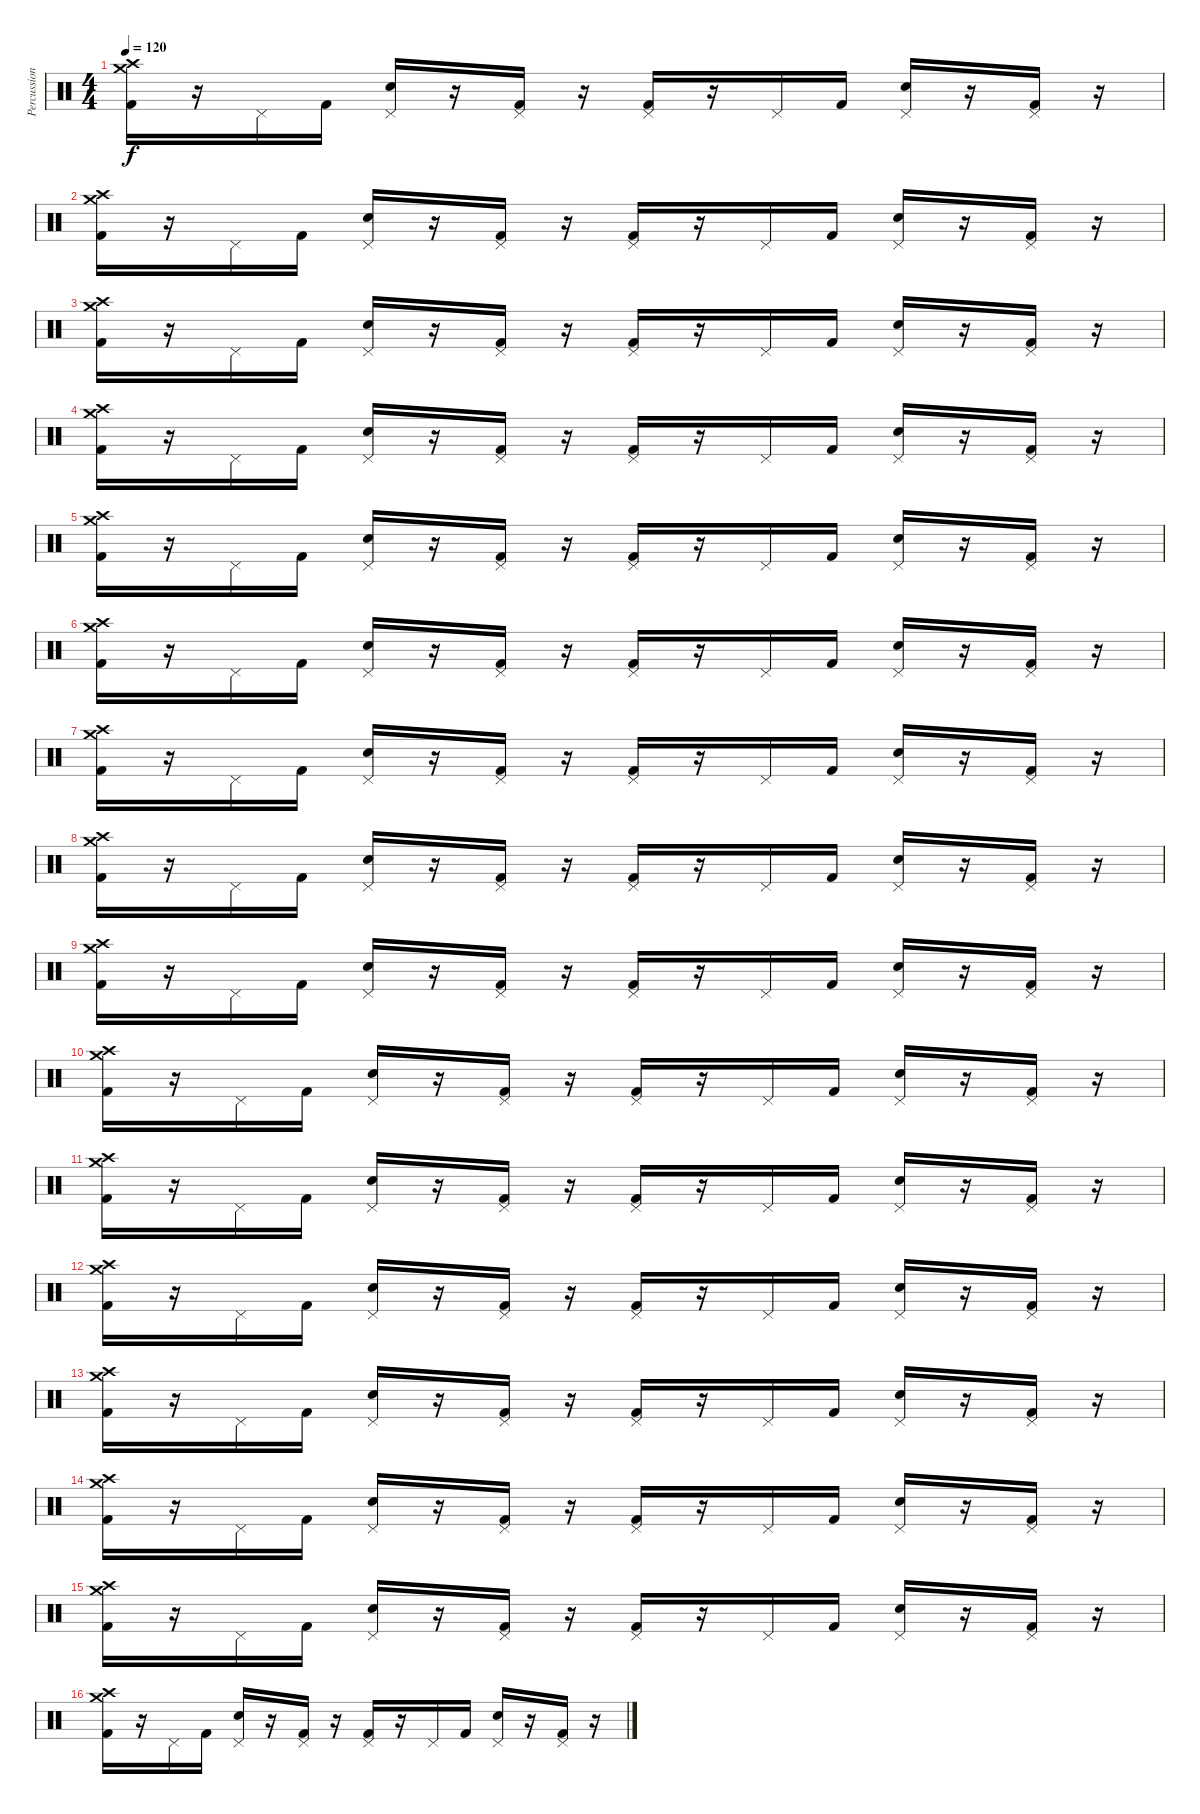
\track ("Percussion" "Percussion") {instrument percussion}
\staff {score}
\articulation defaults
\ts (4 4)
\tempo 120
\clef neutral
\ks c
("Crash medium (hit)" "Crash high (hit)" "Kick (hit) 2").16{dy f} r.16 "Pedal Hi-Hat (hit)".16 "Kick (hit) 2".16 ("Pedal Hi-Hat (hit)" "Snare (hit) 2").16 r.16 ("Pedal Hi-Hat (hit)" "Kick (hit) 2").16 r.16 ("Pedal Hi-Hat (hit)" "Kick (hit) 2").16 r.16 "Pedal Hi-Hat (hit)".16 "Kick (hit) 2".16 ("Pedal Hi-Hat (hit)" "Snare (hit) 2").16 r.16 ("Pedal Hi-Hat (hit)" "Kick (hit) 2").16 r.16 |
("Crash medium (hit)" "Crash high (hit)" "Kick (hit) 2").16 r.16 "Pedal Hi-Hat (hit)".16 "Kick (hit) 2".16 ("Pedal Hi-Hat (hit)" "Snare (hit) 2").16 r.16 ("Pedal Hi-Hat (hit)" "Kick (hit) 2").16 r.16 ("Pedal Hi-Hat (hit)" "Kick (hit) 2").16 r.16 "Pedal Hi-Hat (hit)".16 "Kick (hit) 2".16 ("Pedal Hi-Hat (hit)" "Snare (hit) 2").16 r.16 ("Pedal Hi-Hat (hit)" "Kick (hit) 2").16 r.16 |
("Crash medium (hit)" "Crash high (hit)" "Kick (hit) 2").16 r.16 "Pedal Hi-Hat (hit)".16 "Kick (hit) 2".16 ("Pedal Hi-Hat (hit)" "Snare (hit) 2").16 r.16 ("Pedal Hi-Hat (hit)" "Kick (hit) 2").16 r.16 ("Pedal Hi-Hat (hit)" "Kick (hit) 2").16 r.16 "Pedal Hi-Hat (hit)".16 "Kick (hit) 2".16 ("Pedal Hi-Hat (hit)" "Snare (hit) 2").16 r.16 ("Pedal Hi-Hat (hit)" "Kick (hit) 2").16 r.16 |
("Crash medium (hit)" "Crash high (hit)" "Kick (hit) 2").16 r.16 "Pedal Hi-Hat (hit)".16 "Kick (hit) 2".16 ("Pedal Hi-Hat (hit)" "Snare (hit) 2").16 r.16 ("Pedal Hi-Hat (hit)" "Kick (hit) 2").16 r.16 ("Pedal Hi-Hat (hit)" "Kick (hit) 2").16 r.16 "Pedal Hi-Hat (hit)".16 "Kick (hit) 2".16 ("Pedal Hi-Hat (hit)" "Snare (hit) 2").16 r.16 ("Pedal Hi-Hat (hit)" "Kick (hit) 2").16 r.16 |
("Crash medium (hit)" "Crash high (hit)" "Kick (hit) 2").16 r.16 "Pedal Hi-Hat (hit)".16 "Kick (hit) 2".16 ("Pedal Hi-Hat (hit)" "Snare (hit) 2").16 r.16 ("Pedal Hi-Hat (hit)" "Kick (hit) 2").16 r.16 ("Pedal Hi-Hat (hit)" "Kick (hit) 2").16 r.16 "Pedal Hi-Hat (hit)".16 "Kick (hit) 2".16 ("Pedal Hi-Hat (hit)" "Snare (hit) 2").16 r.16 ("Pedal Hi-Hat (hit)" "Kick (hit) 2").16 r.16 |
("Crash medium (hit)" "Crash high (hit)" "Kick (hit) 2").16 r.16 "Pedal Hi-Hat (hit)".16 "Kick (hit) 2".16 ("Pedal Hi-Hat (hit)" "Snare (hit) 2").16 r.16 ("Pedal Hi-Hat (hit)" "Kick (hit) 2").16 r.16 ("Pedal Hi-Hat (hit)" "Kick (hit) 2").16 r.16 "Pedal Hi-Hat (hit)".16 "Kick (hit) 2".16 ("Pedal Hi-Hat (hit)" "Snare (hit) 2").16 r.16 ("Pedal Hi-Hat (hit)" "Kick (hit) 2").16 r.16 |
("Crash medium (hit)" "Crash high (hit)" "Kick (hit) 2").16 r.16 "Pedal Hi-Hat (hit)".16 "Kick (hit) 2".16 ("Pedal Hi-Hat (hit)" "Snare (hit) 2").16 r.16 ("Pedal Hi-Hat (hit)" "Kick (hit) 2").16 r.16 ("Pedal Hi-Hat (hit)" "Kick (hit) 2").16 r.16 "Pedal Hi-Hat (hit)".16 "Kick (hit) 2".16 ("Pedal Hi-Hat (hit)" "Snare (hit) 2").16 r.16 ("Pedal Hi-Hat (hit)" "Kick (hit) 2").16 r.16 |
("Crash medium (hit)" "Crash high (hit)" "Kick (hit) 2").16 r.16 "Pedal Hi-Hat (hit)".16 "Kick (hit) 2".16 ("Pedal Hi-Hat (hit)" "Snare (hit) 2").16 r.16 ("Pedal Hi-Hat (hit)" "Kick (hit) 2").16 r.16 ("Pedal Hi-Hat (hit)" "Kick (hit) 2").16 r.16 "Pedal Hi-Hat (hit)".16 "Kick (hit) 2".16 ("Pedal Hi-Hat (hit)" "Snare (hit) 2").16 r.16 ("Pedal Hi-Hat (hit)" "Kick (hit) 2").16 r.16 |
("Crash medium (hit)" "Crash high (hit)" "Kick (hit) 2").16 r.16 "Pedal Hi-Hat (hit)".16 "Kick (hit) 2".16 ("Pedal Hi-Hat (hit)" "Snare (hit) 2").16 r.16 ("Pedal Hi-Hat (hit)" "Kick (hit) 2").16 r.16 ("Pedal Hi-Hat (hit)" "Kick (hit) 2").16 r.16 "Pedal Hi-Hat (hit)".16 "Kick (hit) 2".16 ("Pedal Hi-Hat (hit)" "Snare (hit) 2").16 r.16 ("Pedal Hi-Hat (hit)" "Kick (hit) 2").16 r.16 |
("Crash medium (hit)" "Crash high (hit)" "Kick (hit) 2").16 r.16 "Pedal Hi-Hat (hit)".16 "Kick (hit) 2".16 ("Pedal Hi-Hat (hit)" "Snare (hit) 2").16 r.16 ("Pedal Hi-Hat (hit)" "Kick (hit) 2").16 r.16 ("Pedal Hi-Hat (hit)" "Kick (hit) 2").16 r.16 "Pedal Hi-Hat (hit)".16 "Kick (hit) 2".16 ("Pedal Hi-Hat (hit)" "Snare (hit) 2").16 r.16 ("Pedal Hi-Hat (hit)" "Kick (hit) 2").16 r.16 |
("Crash medium (hit)" "Crash high (hit)" "Kick (hit) 2").16 r.16 "Pedal Hi-Hat (hit)".16 "Kick (hit) 2".16 ("Pedal Hi-Hat (hit)" "Snare (hit) 2").16 r.16 ("Pedal Hi-Hat (hit)" "Kick (hit) 2").16 r.16 ("Pedal Hi-Hat (hit)" "Kick (hit) 2").16 r.16 "Pedal Hi-Hat (hit)".16 "Kick (hit) 2".16 ("Pedal Hi-Hat (hit)" "Snare (hit) 2").16 r.16 ("Pedal Hi-Hat (hit)" "Kick (hit) 2").16 r.16 |
("Crash medium (hit)" "Crash high (hit)" "Kick (hit) 2").16 r.16 "Pedal Hi-Hat (hit)".16 "Kick (hit) 2".16 ("Pedal Hi-Hat (hit)" "Snare (hit) 2").16 r.16 ("Pedal Hi-Hat (hit)" "Kick (hit) 2").16 r.16 ("Pedal Hi-Hat (hit)" "Kick (hit) 2").16 r.16 "Pedal Hi-Hat (hit)".16 "Kick (hit) 2".16 ("Pedal Hi-Hat (hit)" "Snare (hit) 2").16 r.16 ("Pedal Hi-Hat (hit)" "Kick (hit) 2").16 r.16 |
("Crash medium (hit)" "Crash high (hit)" "Kick (hit) 2").16 r.16 "Pedal Hi-Hat (hit)".16 "Kick (hit) 2".16 ("Pedal Hi-Hat (hit)" "Snare (hit) 2").16 r.16 ("Pedal Hi-Hat (hit)" "Kick (hit) 2").16 r.16 ("Pedal Hi-Hat (hit)" "Kick (hit) 2").16 r.16 "Pedal Hi-Hat (hit)".16 "Kick (hit) 2".16 ("Pedal Hi-Hat (hit)" "Snare (hit) 2").16 r.16 ("Pedal Hi-Hat (hit)" "Kick (hit) 2").16 r.16 |
("Crash medium (hit)" "Crash high (hit)" "Kick (hit) 2").16 r.16 "Pedal Hi-Hat (hit)".16 "Kick (hit) 2".16 ("Pedal Hi-Hat (hit)" "Snare (hit) 2").16 r.16 ("Pedal Hi-Hat (hit)" "Kick (hit) 2").16 r.16 ("Pedal Hi-Hat (hit)" "Kick (hit) 2").16 r.16 "Pedal Hi-Hat (hit)".16 "Kick (hit) 2".16 ("Pedal Hi-Hat (hit)" "Snare (hit) 2").16 r.16 ("Pedal Hi-Hat (hit)" "Kick (hit) 2").16 r.16 |
("Crash medium (hit)" "Crash high (hit)" "Kick (hit) 2").16 r.16 "Pedal Hi-Hat (hit)".16 "Kick (hit) 2".16 ("Pedal Hi-Hat (hit)" "Snare (hit) 2").16 r.16 ("Pedal Hi-Hat (hit)" "Kick (hit) 2").16 r.16 ("Pedal Hi-Hat (hit)" "Kick (hit) 2").16 r.16 "Pedal Hi-Hat (hit)".16 "Kick (hit) 2".16 ("Pedal Hi-Hat (hit)" "Snare (hit) 2").16 r.16 ("Pedal Hi-Hat (hit)" "Kick (hit) 2").16 r.16 |
("Crash medium (hit)" "Crash high (hit)" "Kick (hit) 2").16 r.16 "Pedal Hi-Hat (hit)".16 "Kick (hit) 2".16 ("Pedal Hi-Hat (hit)" "Snare (hit) 2").16 r.16 ("Pedal Hi-Hat (hit)" "Kick (hit) 2").16 r.16 ("Pedal Hi-Hat (hit)" "Kick (hit) 2").16 r.16 "Pedal Hi-Hat (hit)".16 "Kick (hit) 2".16 ("Pedal Hi-Hat (hit)" "Snare (hit) 2").16 r.16 ("Pedal Hi-Hat (hit)" "Kick (hit) 2").16 r.16
